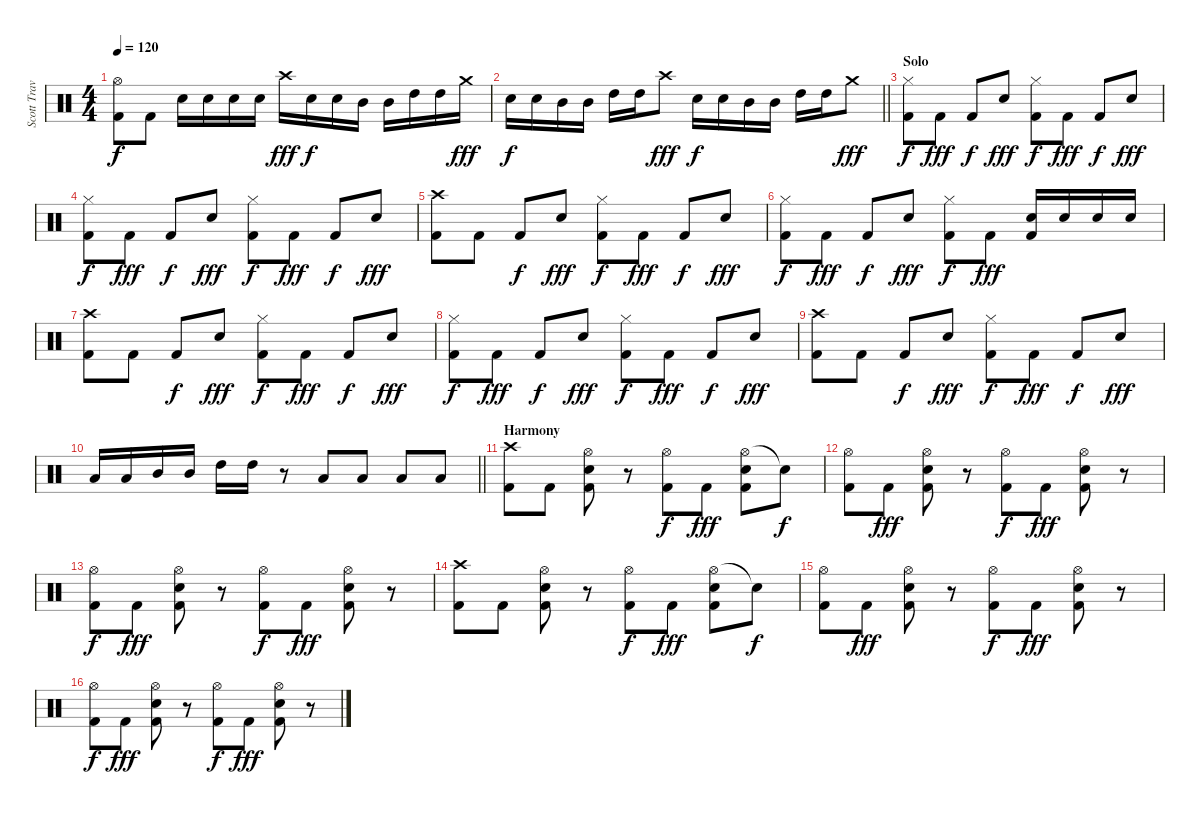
\track ("Scott Travis" "Scott Trav") {instrument percussion}
\staff {score}
\articulation defaults
\ts (4 4)
\tempo 120
\clef neutral
\ks c
("Hi-Hat (open)" "Kick (hit) 2").8{dy f} "Kick (hit) 2".8 "Electric Snare (hit)".16 "Electric Snare (hit)".16 "Electric Snare (hit)".16 "Electric Snare (hit)".16 "Crash high (hit)".16{dy fff} "Electric Snare (hit)".16{dy f} "Electric Snare (hit)".16 "Mid Tom (hit)".16 "Mid Tom (hit)".16 "High Tom (hit)".16 "High Tom (hit)".16 "Crash medium (hit)".16{dy fff} |
\barLineRight lightlight "Electric Snare (hit)".16{dy f} "Electric Snare (hit)".16 "Mid Tom (hit)".16 "Mid Tom (hit)".16 "High Tom (hit)".16 "High Tom (hit)".16 "Crash high (hit)".8{dy fff} "Electric Snare (hit)".16{dy f} "Electric Snare (hit)".16 "Mid Tom (hit)".16 "Mid Tom (hit)".16 "High Tom (hit)".16 "High Tom (hit)".16 "Crash medium (hit)".8{dy fff}
|
\section ("" "Solo")
("Hi-Hat (closed)" "Kick (hit) 2").8{dy f} "Kick (hit) 2".8{dy fff} "Kick (hit) 2".8{dy f} "Electric Snare (hit)".8{dy fff} ("Hi-Hat (closed)" "Kick (hit) 2").8{dy f} "Kick (hit) 2".8{dy fff} "Kick (hit) 2".8{dy f} "Electric Snare (hit)".8{dy fff} |
("Hi-Hat (closed)" "Kick (hit) 2").8{dy f} "Kick (hit) 2".8{dy fff} "Kick (hit) 2".8{dy f} "Electric Snare (hit)".8{dy fff} ("Hi-Hat (closed)" "Kick (hit) 2").8{dy f} "Kick (hit) 2".8{dy fff} "Kick (hit) 2".8{dy f} "Electric Snare (hit)".8{dy fff} |
("Crash high (hit)" "Kick (hit) 2").8 "Kick (hit) 2".8 "Kick (hit) 2".8{dy f} "Electric Snare (hit)".8{dy fff} ("Hi-Hat (closed)" "Kick (hit) 2").8{dy f} "Kick (hit) 2".8{dy fff} "Kick (hit) 2".8{dy f} "Electric Snare (hit)".8{dy fff} |
("Hi-Hat (closed)" "Kick (hit) 2").8{dy f} "Kick (hit) 2".8{dy fff} "Kick (hit) 2".8{dy f} "Electric Snare (hit)".8{dy fff} ("Hi-Hat (closed)" "Kick (hit) 2").8{dy f} "Kick (hit) 2".8{dy fff} ("Kick (hit) 2" "Electric Snare (hit)").16 "Electric Snare (hit)".16 "Electric Snare (hit)".16 "Electric Snare (hit)".16 |
("Crash high (hit)" "Kick (hit) 2").8 "Kick (hit) 2".8 "Kick (hit) 2".8{dy f} "Electric Snare (hit)".8{dy fff} ("Hi-Hat (closed)" "Kick (hit) 2").8{dy f} "Kick (hit) 2".8{dy fff} "Kick (hit) 2".8{dy f} "Electric Snare (hit)".8{dy fff} |
("Hi-Hat (closed)" "Kick (hit) 2").8{dy f} "Kick (hit) 2".8{dy fff} "Kick (hit) 2".8{dy f} "Electric Snare (hit)".8{dy fff} ("Hi-Hat (closed)" "Kick (hit) 2").8{dy f} "Kick (hit) 2".8{dy fff} "Kick (hit) 2".8{dy f} "Electric Snare (hit)".8{dy fff} |
("Crash high (hit)" "Kick (hit) 2").8 "Kick (hit) 2".8 "Kick (hit) 2".8{dy f} "Electric Snare (hit)".8{dy fff} ("Hi-Hat (closed)" "Kick (hit) 2").8{dy f} "Kick (hit) 2".8{dy fff} "Kick (hit) 2".8{dy f} "Electric Snare (hit)".8{dy fff} |
\barLineRight lightlight "Low Tom (hit)".16 "Low Tom (hit)".16 "Mid Tom (hit)".16 "Mid Tom (hit)".16 "High Tom (hit)".16 "High Tom (hit)".16
r.8 "Low Tom (hit)".8 "Low Tom (hit)".8 "Low Tom (hit)".8 "Low Tom (hit)".8 |
\section ("" "Harmony")
("Crash high (hit)" "Kick (hit) 2").8 "Kick (hit) 2".8 ("Hi-Hat (open)" "Kick (hit) 2" "Electric Snare (hit)").8 r.8 ("Hi-Hat (open)" "Kick (hit) 2").8{dy f} "Kick (hit) 2".8{dy fff} ("Hi-Hat (open)" "Kick (hit) 2" "Electric Snare (hit)").8 "Snare (hit)"{t}.8{dy f} |
("Hi-Hat (open)" "Kick (hit) 2").8 "Kick (hit) 2".8{dy fff} ("Hi-Hat (open)" "Kick (hit) 2" "Electric Snare (hit)").8 r.8 ("Hi-Hat (open)" "Kick (hit) 2").8{dy f} "Kick (hit) 2".8{dy fff} ("Hi-Hat (open)" "Kick (hit) 2" "Electric Snare (hit)").8 r.8 |
("Hi-Hat (open)" "Kick (hit) 2").8{dy f} "Kick (hit) 2".8{dy fff} ("Hi-Hat (open)" "Kick (hit) 2" "Electric Snare (hit)").8 r.8 ("Hi-Hat (open)" "Kick (hit) 2").8{dy f} "Kick (hit) 2".8{dy fff} ("Hi-Hat (open)" "Kick (hit) 2" "Electric Snare (hit)").8 r.8 |
("Crash high (hit)" "Kick (hit) 2").8 "Kick (hit) 2".8 ("Hi-Hat (open)" "Kick (hit) 2" "Electric Snare (hit)").8 r.8 ("Hi-Hat (open)" "Kick (hit) 2").8{dy f} "Kick (hit) 2".8{dy fff} ("Hi-Hat (open)" "Kick (hit) 2" "Electric Snare (hit)").8 "Snare (hit)"{t}.8{dy f} |
("Hi-Hat (open)" "Kick (hit) 2").8 "Kick (hit) 2".8{dy fff} ("Hi-Hat (open)" "Kick (hit) 2" "Electric Snare (hit)").8 r.8 ("Hi-Hat (open)" "Kick (hit) 2").8{dy f} "Kick (hit) 2".8{dy fff} ("Hi-Hat (open)" "Kick (hit) 2" "Electric Snare (hit)").8 r.8 |
("Hi-Hat (open)" "Kick (hit) 2").8{dy f} "Kick (hit) 2".8{dy fff} ("Hi-Hat (open)" "Kick (hit) 2" "Electric Snare (hit)").8 r.8 ("Hi-Hat (open)" "Kick (hit) 2").8{dy f} "Kick (hit) 2".8{dy fff} ("Hi-Hat (open)" "Kick (hit) 2" "Electric Snare (hit)").8 r.8
